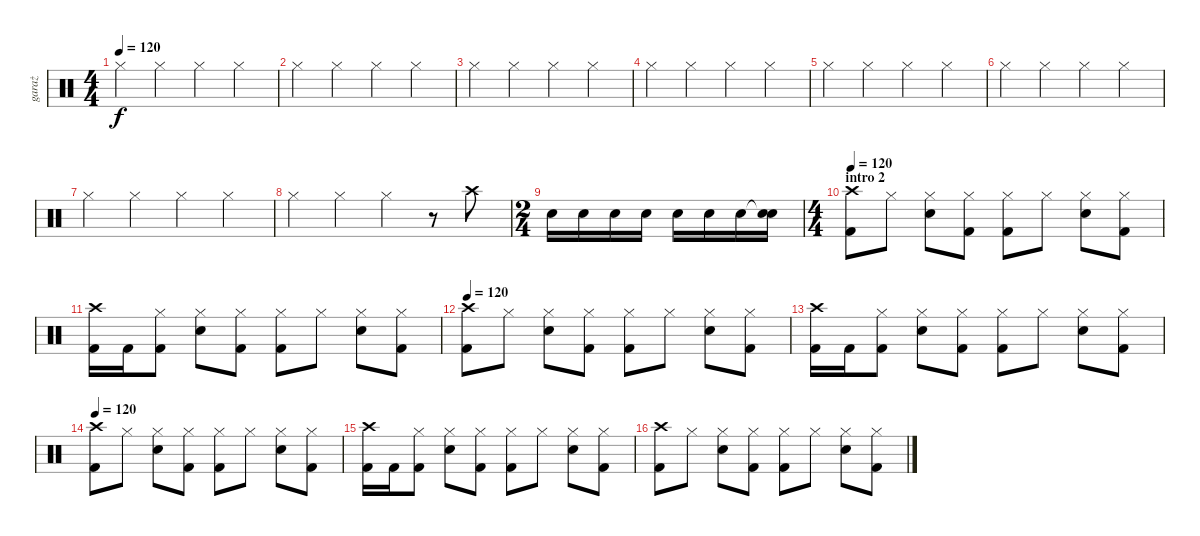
\track ("garaż" "garaż") {instrument percussion}
\staff {score}
\articulation defaults
\ts (4 4)
\tempo 120
\clef neutral
\ks c "Hi-Hat (closed)".4{dy f volume 9} "Hi-Hat (closed)".4 "Hi-Hat (closed)".4 "Hi-Hat (closed)".4
|
"Hi-Hat (closed)".4{volume 9} "Hi-Hat (closed)".4 "Hi-Hat (closed)".4 "Hi-Hat (closed)".4 |
"Hi-Hat (closed)".4{volume 9} "Hi-Hat (closed)".4 "Hi-Hat (closed)".4 "Hi-Hat (closed)".4 |
"Hi-Hat (closed)".4{volume 9} "Hi-Hat (closed)".4 "Hi-Hat (closed)".4 "Hi-Hat (closed)".4 |
"Hi-Hat (closed)".4{volume 9} "Hi-Hat (closed)".4 "Hi-Hat (closed)".4 "Hi-Hat (closed)".4 |
"Hi-Hat (closed)".4{volume 9} "Hi-Hat (closed)".4 "Hi-Hat (closed)".4 "Hi-Hat (closed)".4 |
"Hi-Hat (closed)".4{volume 9} "Hi-Hat (closed)".4 "Hi-Hat (closed)".4 "Hi-Hat (closed)".4 |
"Hi-Hat (closed)".4 "Hi-Hat (closed)".4 "Hi-Hat (closed)".4 r.8 "Crash high (hit)".8{volume 0} |
\ts (2 4)
"Snare (hit) 2".16{volume 16} "Snare (hit) 2".16 "Snare (hit) 2".16 "Snare (hit) 2".16 "Snare (hit) 2".16 "Snare (hit) 2".16 "Snare (hit) 2".16 ("Snare (hit)"{t} "Snare (hit) 2").16 |
\ts (4 4)
\section ("" "intro 2")
\tempo 120
("Crash high (hit)" "Kick (hit) 2").8{volume 13} "Hi-Hat (closed)".8 ("Hi-Hat (closed)" "Snare (hit) 2").8 ("Hi-Hat (closed)" "Kick (hit) 2").8 ("Hi-Hat (closed)" "Kick (hit) 2").8 "Hi-Hat (closed)".8 ("Hi-Hat (closed)" "Snare (hit) 2").8 ("Hi-Hat (closed)" "Kick (hit) 2").8 |
("Crash high (hit)" "Kick (hit) 2").16 "Kick (hit) 2".16 ("Hi-Hat (closed)" "Kick (hit) 2").8 ("Hi-Hat (closed)" "Snare (hit) 2").8 ("Hi-Hat (closed)" "Kick (hit) 2").8 ("Hi-Hat (closed)" "Kick (hit) 2").8 "Hi-Hat (closed)".8 ("Hi-Hat (closed)" "Snare (hit) 2").8 ("Hi-Hat (closed)" "Kick (hit) 2").8 |
\tempo 120
("Crash high (hit)" "Kick (hit) 2").8{volume 13} "Hi-Hat (closed)".8 ("Hi-Hat (closed)" "Snare (hit) 2").8 ("Hi-Hat (closed)" "Kick (hit) 2").8 ("Hi-Hat (closed)" "Kick (hit) 2").8 "Hi-Hat (closed)".8 ("Hi-Hat (closed)" "Snare (hit) 2").8 ("Hi-Hat (closed)" "Kick (hit) 2").8 |
("Crash high (hit)" "Kick (hit) 2").16 "Kick (hit) 2".16 ("Hi-Hat (closed)" "Kick (hit) 2").8 ("Hi-Hat (closed)" "Snare (hit) 2").8 ("Hi-Hat (closed)" "Kick (hit) 2").8 ("Hi-Hat (closed)" "Kick (hit) 2").8 "Hi-Hat (closed)".8 ("Hi-Hat (closed)" "Snare (hit) 2").8 ("Hi-Hat (closed)" "Kick (hit) 2").8 |
\section ("" "")
\tempo 120
("Crash high (hit)" "Kick (hit) 2").8{volume 13} "Hi-Hat (closed)".8 ("Hi-Hat (closed)" "Snare (hit) 2").8 ("Hi-Hat (closed)" "Kick (hit) 2").8 ("Hi-Hat (closed)" "Kick (hit) 2").8 "Hi-Hat (closed)".8 ("Hi-Hat (closed)" "Snare (hit) 2").8 ("Hi-Hat (closed)" "Kick (hit) 2").8 |
("Crash high (hit)" "Kick (hit) 2").16 "Kick (hit) 2".16 ("Hi-Hat (closed)" "Kick (hit) 2").8 ("Hi-Hat (closed)" "Snare (hit) 2").8 ("Hi-Hat (closed)" "Kick (hit) 2").8 ("Hi-Hat (closed)" "Kick (hit) 2").8 "Hi-Hat (closed)".8 ("Hi-Hat (closed)" "Snare (hit) 2").8 ("Hi-Hat (closed)" "Kick (hit) 2").8 |
("Crash high (hit)" "Kick (hit) 2").8 "Hi-Hat (closed)".8 ("Hi-Hat (closed)" "Snare (hit) 2").8 ("Hi-Hat (closed)" "Kick (hit) 2").8 ("Hi-Hat (closed)" "Kick (hit) 2").8 "Hi-Hat (closed)".8 ("Hi-Hat (closed)" "Snare (hit) 2").8 ("Hi-Hat (closed)" "Kick (hit) 2").8
